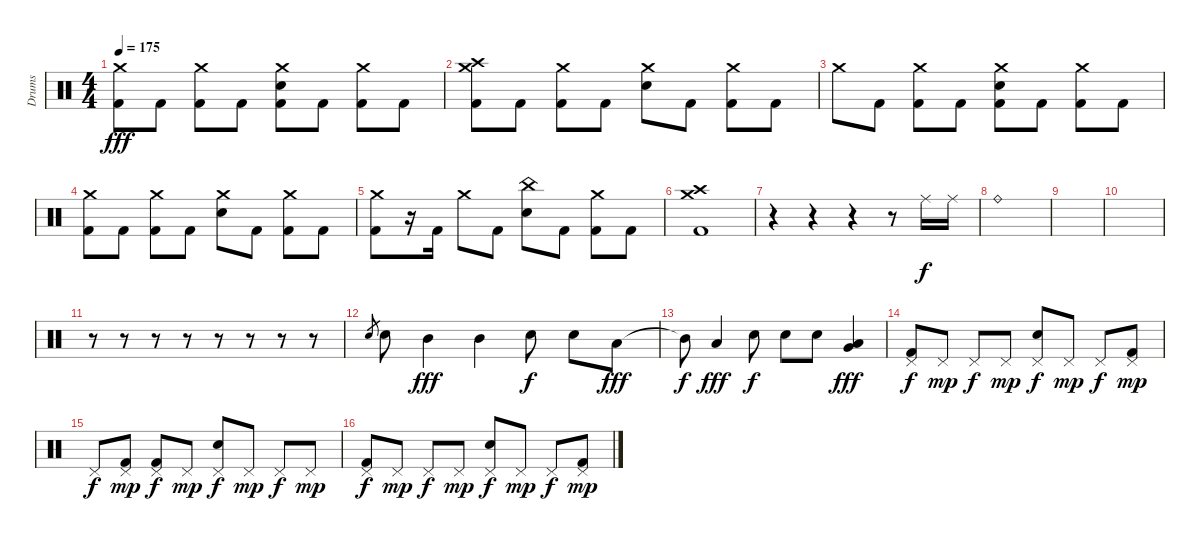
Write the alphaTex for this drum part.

\track ("Drums" "Drums") {instrument percussion}
\staff {score}
\articulation defaults
\ts (4 4)
\tempo 175
\clef neutral
\ks c
("Crash medium (hit)" "Kick (hit) 2").8{dy fff} "Kick (hit) 2".8 ("Crash medium (hit)" "Kick (hit) 2").8 "Kick (hit) 2".8 ("Crash medium (hit)" "Snare (hit) 2" "Kick (hit) 2").8 "Kick (hit) 2".8 ("Crash medium (hit)" "Kick (hit) 2").8 "Kick (hit) 2".8 |
("Crash high (hit)" "Crash medium (hit)" "Kick (hit) 2").8 "Kick (hit) 2".8 ("Crash medium (hit)" "Kick (hit) 2").8 "Kick (hit) 2".8 ("Crash medium (hit)" "Snare (hit) 2").8 "Kick (hit) 2".8 ("Crash medium (hit)" "Kick (hit) 2").8 "Kick (hit) 2".8 |
"Crash medium (hit)".8 "Kick (hit) 2".8 ("Crash medium (hit)" "Kick (hit) 2").8 "Kick (hit) 2".8 ("Crash medium (hit)" "Snare (hit) 2" "Kick (hit) 2").8 "Kick (hit) 2".8 ("Crash medium (hit)" "Kick (hit) 2").8 "Kick (hit) 2".8 |
("Crash medium (hit)" "Kick (hit) 2").8 "Kick (hit) 2".8 ("Crash medium (hit)" "Kick (hit) 2").8 "Kick (hit) 2".8 ("Crash medium (hit)" "Snare (hit) 2").8 "Kick (hit) 2".8 ("Crash medium (hit)" "Kick (hit) 2").8 "Kick (hit) 2".8 |
("Crash medium (hit)" "Kick (hit) 2").8 r.16 "Kick (hit) 2".16 "Crash medium (hit)".8 "Kick (hit) 2".8 ("China (hit)" "Snare (hit) 2").8 "Kick (hit) 2".8 ("Crash medium (hit)" "Kick (hit) 2").8 "Kick (hit) 2".8 |
("Crash medium (hit)" "Crash high (hit)" "Kick (hit) 2").1 |
r.4 r.4 r.4 r.8 "Ride (middle)".16{dy f} "Ride (middle)".16 |
"Ride (bell)".1 |
|
|
r.8 r.8 r.8 r.8 r.8 r.8 r.8 r.8 |
"Snare (hit) 2".8{gr} "Snare (hit) 2".8 "Mid Tom (hit)".4{dy fff} "Mid Tom (hit)".4 "Snare (hit) 2".8{dy f} "Snare (hit) 2".8 "Low Tom (hit)".8{dy fff} |
"Mid Tom (hit)"{t}.8{dy f} "Low Tom (hit)".4{dy fff} "Snare (hit) 2".8{dy f} "Snare (hit) 2".8 "Snare (hit) 2".8 ("Very Low Tom (hit)" "Low Floor Tom (hit)").4{dy fff} |
("Pedal Hi-Hat (hit)" "Kick (hit) 2").8{dy f} "Pedal Hi-Hat (hit)".8{dy mp} "Pedal Hi-Hat (hit)".8{dy f} "Pedal Hi-Hat (hit)".8{dy mp} ("Pedal Hi-Hat (hit)" "Snare (hit) 2").8{dy f} "Pedal Hi-Hat (hit)".8{dy mp} "Pedal Hi-Hat (hit)".8{dy f} ("Pedal Hi-Hat (hit)" "Kick (hit) 2").8{dy mp} |
"Pedal Hi-Hat (hit)".8{dy f} ("Pedal Hi-Hat (hit)" "Kick (hit) 2").8{dy mp} ("Pedal Hi-Hat (hit)" "Kick (hit) 2").8{dy f} "Pedal Hi-Hat (hit)".8{dy mp} ("Pedal Hi-Hat (hit)" "Snare (hit) 2").8{dy f} "Pedal Hi-Hat (hit)".8{dy mp} "Pedal Hi-Hat (hit)".8{dy f} "Pedal Hi-Hat (hit)".8{dy mp} |
("Pedal Hi-Hat (hit)" "Kick (hit) 2").8{dy f} "Pedal Hi-Hat (hit)".8{dy mp} "Pedal Hi-Hat (hit)".8{dy f} "Pedal Hi-Hat (hit)".8{dy mp} ("Pedal Hi-Hat (hit)" "Snare (hit) 2").8{dy f} "Pedal Hi-Hat (hit)".8{dy mp} "Pedal Hi-Hat (hit)".8{dy f} ("Pedal Hi-Hat (hit)" "Kick (hit) 2").8{dy mp}
